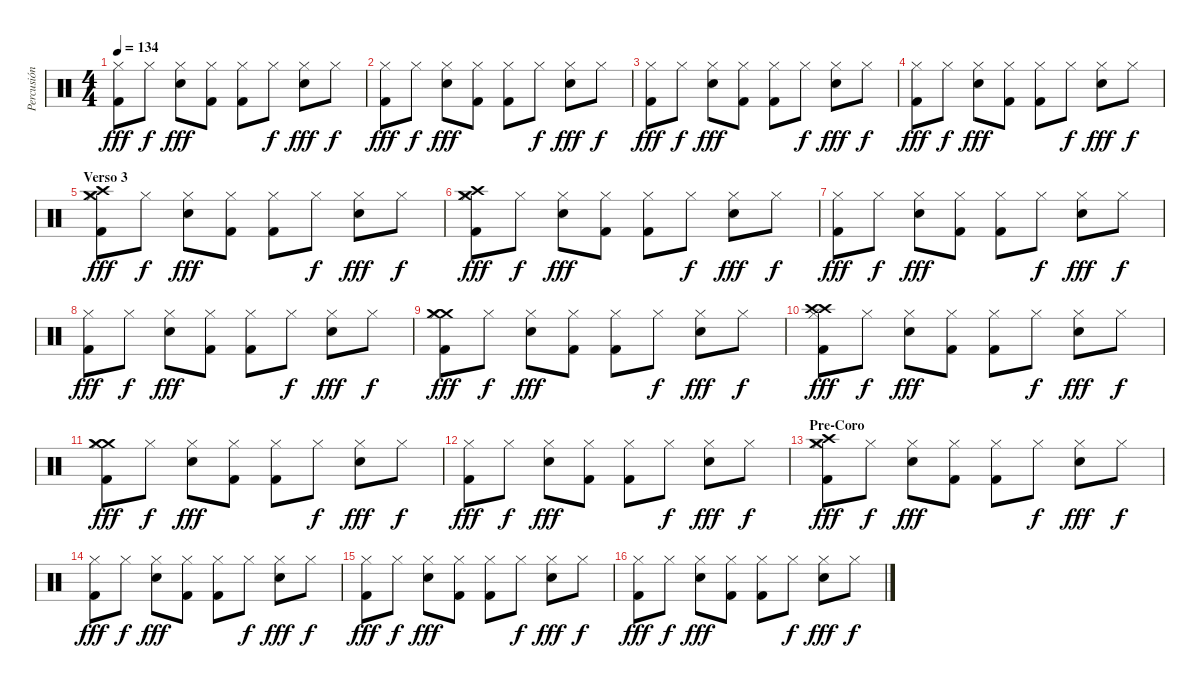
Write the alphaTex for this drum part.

\track ("Percusión" "Percusión") {instrument percussion}
\staff {score}
\articulation defaults
\ts (4 4)
\tempo 134
\clef neutral
\ks c
("Hi-Hat (closed)" "Kick (hit) 2").8{dy fff} "Hi-Hat (closed)".8{dy f} ("Hi-Hat (closed)" "Electric Snare (hit)").8{dy fff} ("Hi-Hat (closed)" "Kick (hit) 2").8 ("Hi-Hat (closed)" "Kick (hit) 2").8 "Hi-Hat (closed)".8{dy f} ("Hi-Hat (closed)" "Electric Snare (hit)").8{dy fff} "Hi-Hat (closed)".8{dy f} |
("Hi-Hat (closed)" "Kick (hit) 2").8{dy fff} "Hi-Hat (closed)".8{dy f} ("Hi-Hat (closed)" "Electric Snare (hit)").8{dy fff} ("Hi-Hat (closed)" "Kick (hit) 2").8 ("Hi-Hat (closed)" "Kick (hit) 2").8 "Hi-Hat (closed)".8{dy f} ("Hi-Hat (closed)" "Electric Snare (hit)").8{dy fff} "Hi-Hat (closed)".8{dy f} |
("Hi-Hat (closed)" "Kick (hit) 2").8{dy fff} "Hi-Hat (closed)".8{dy f} ("Hi-Hat (closed)" "Electric Snare (hit)").8{dy fff} ("Hi-Hat (closed)" "Kick (hit) 2").8 ("Hi-Hat (closed)" "Kick (hit) 2").8 "Hi-Hat (closed)".8{dy f} ("Hi-Hat (closed)" "Electric Snare (hit)").8{dy fff} "Hi-Hat (closed)".8{dy f} |
("Hi-Hat (closed)" "Kick (hit) 2").8{dy fff} "Hi-Hat (closed)".8{dy f} ("Hi-Hat (closed)" "Electric Snare (hit)").8{dy fff} ("Hi-Hat (closed)" "Kick (hit) 2").8 ("Hi-Hat (closed)" "Kick (hit) 2").8 "Hi-Hat (closed)".8{dy f} ("Hi-Hat (closed)" "Electric Snare (hit)").8{dy fff} "Hi-Hat (closed)".8{dy f} |
\section ("" "Verso 3")
("Crash high (hit)" "Crash medium (hit)" "Hi-Hat (closed)" "Kick (hit) 2").8{dy fff} "Hi-Hat (closed)".8{dy f} ("Hi-Hat (closed)" "Electric Snare (hit)").8{dy fff} ("Hi-Hat (closed)" "Kick (hit) 2").8 ("Hi-Hat (closed)" "Kick (hit) 2").8 "Hi-Hat (closed)".8{dy f} ("Hi-Hat (closed)" "Electric Snare (hit)").8{dy fff} "Hi-Hat (closed)".8{dy f} |
("Crash high (hit)" "Crash medium (hit)" "Hi-Hat (closed)" "Kick (hit) 2").8{dy fff} "Hi-Hat (closed)".8{dy f} ("Hi-Hat (closed)" "Electric Snare (hit)").8{dy fff} ("Hi-Hat (closed)" "Kick (hit) 2").8 ("Hi-Hat (closed)" "Kick (hit) 2").8 "Hi-Hat (closed)".8{dy f} ("Hi-Hat (closed)" "Electric Snare (hit)").8{dy fff} "Hi-Hat (closed)".8{dy f} |
("Hi-Hat (closed)" "Kick (hit) 2").8{dy fff} "Hi-Hat (closed)".8{dy f} ("Hi-Hat (closed)" "Electric Snare (hit)").8{dy fff} ("Hi-Hat (closed)" "Kick (hit) 2").8 ("Hi-Hat (closed)" "Kick (hit) 2").8 "Hi-Hat (closed)".8{dy f} ("Hi-Hat (closed)" "Electric Snare (hit)").8{dy fff} "Hi-Hat (closed)".8{dy f} |
("Hi-Hat (closed)" "Kick (hit) 2").8{dy fff} "Hi-Hat (closed)".8{dy f} ("Hi-Hat (closed)" "Electric Snare (hit)").8{dy fff} ("Hi-Hat (closed)" "Kick (hit) 2").8 ("Hi-Hat (closed)" "Kick (hit) 2").8 "Hi-Hat (closed)".8{dy f} ("Hi-Hat (closed)" "Electric Snare (hit)").8{dy fff} "Hi-Hat (closed)".8{dy f} |
("Crash medium (hit)" "Crash medium (hit)" "Hi-Hat (closed)" "Kick (hit) 2").8{dy fff} "Hi-Hat (closed)".8{dy f} ("Hi-Hat (closed)" "Electric Snare (hit)").8{dy fff} ("Hi-Hat (closed)" "Kick (hit) 2").8 ("Hi-Hat (closed)" "Kick (hit) 2").8 "Hi-Hat (closed)".8{dy f} ("Hi-Hat (closed)" "Electric Snare (hit)").8{dy fff} "Hi-Hat (closed)".8{dy f} |
("Crash high (hit)" "Crash high (hit)" "Hi-Hat (closed)" "Kick (hit) 2").8{dy fff} "Hi-Hat (closed)".8{dy f} ("Hi-Hat (closed)" "Electric Snare (hit)").8{dy fff} ("Hi-Hat (closed)" "Kick (hit) 2").8 ("Hi-Hat (closed)" "Kick (hit) 2").8 "Hi-Hat (closed)".8{dy f} ("Hi-Hat (closed)" "Electric Snare (hit)").8{dy fff} "Hi-Hat (closed)".8{dy f} |
("Crash medium (hit)" "Crash medium (hit)" "Hi-Hat (closed)" "Kick (hit) 2").8{dy fff} "Hi-Hat (closed)".8{dy f} ("Hi-Hat (closed)" "Electric Snare (hit)").8{dy fff} ("Hi-Hat (closed)" "Kick (hit) 2").8 ("Hi-Hat (closed)" "Kick (hit) 2").8 "Hi-Hat (closed)".8{dy f} ("Hi-Hat (closed)" "Electric Snare (hit)").8{dy fff} "Hi-Hat (closed)".8{dy f} |
("Hi-Hat (closed)" "Kick (hit) 2").8{dy fff} "Hi-Hat (closed)".8{dy f} ("Hi-Hat (closed)" "Electric Snare (hit)").8{dy fff} ("Hi-Hat (closed)" "Kick (hit) 2").8 ("Hi-Hat (closed)" "Kick (hit) 2").8 "Hi-Hat (closed)".8{dy f} ("Hi-Hat (closed)" "Electric Snare (hit)").8{dy fff} "Hi-Hat (closed)".8{dy f} |
\section ("" "Pre-Coro")
("Crash high (hit)" "Crash medium (hit)" "Hi-Hat (closed)" "Kick (hit) 2").8{dy fff} "Hi-Hat (closed)".8{dy f} ("Hi-Hat (closed)" "Electric Snare (hit)").8{dy fff} ("Hi-Hat (closed)" "Kick (hit) 2").8 ("Hi-Hat (closed)" "Kick (hit) 2").8 "Hi-Hat (closed)".8{dy f} ("Hi-Hat (closed)" "Electric Snare (hit)").8{dy fff} "Hi-Hat (closed)".8{dy f} |
("Hi-Hat (closed)" "Kick (hit) 2").8{dy fff} "Hi-Hat (closed)".8{dy f} ("Hi-Hat (closed)" "Electric Snare (hit)").8{dy fff} ("Hi-Hat (closed)" "Kick (hit) 2").8 ("Hi-Hat (closed)" "Kick (hit) 2").8 "Hi-Hat (closed)".8{dy f} ("Hi-Hat (closed)" "Electric Snare (hit)").8{dy fff} "Hi-Hat (closed)".8{dy f} |
("Hi-Hat (closed)" "Kick (hit) 2").8{dy fff} "Hi-Hat (closed)".8{dy f} ("Hi-Hat (closed)" "Electric Snare (hit)").8{dy fff} ("Hi-Hat (closed)" "Kick (hit) 2").8 ("Hi-Hat (closed)" "Kick (hit) 2").8 "Hi-Hat (closed)".8{dy f} ("Hi-Hat (closed)" "Electric Snare (hit)").8{dy fff} "Hi-Hat (closed)".8{dy f} |
("Hi-Hat (closed)" "Kick (hit) 2").8{dy fff} "Hi-Hat (closed)".8{dy f} ("Hi-Hat (closed)" "Electric Snare (hit)").8{dy fff} ("Hi-Hat (closed)" "Kick (hit) 2").8 ("Hi-Hat (closed)" "Kick (hit) 2").8 "Hi-Hat (closed)".8{dy f} ("Hi-Hat (closed)" "Electric Snare (hit)").8{dy fff} "Hi-Hat (closed)".8{dy f}
